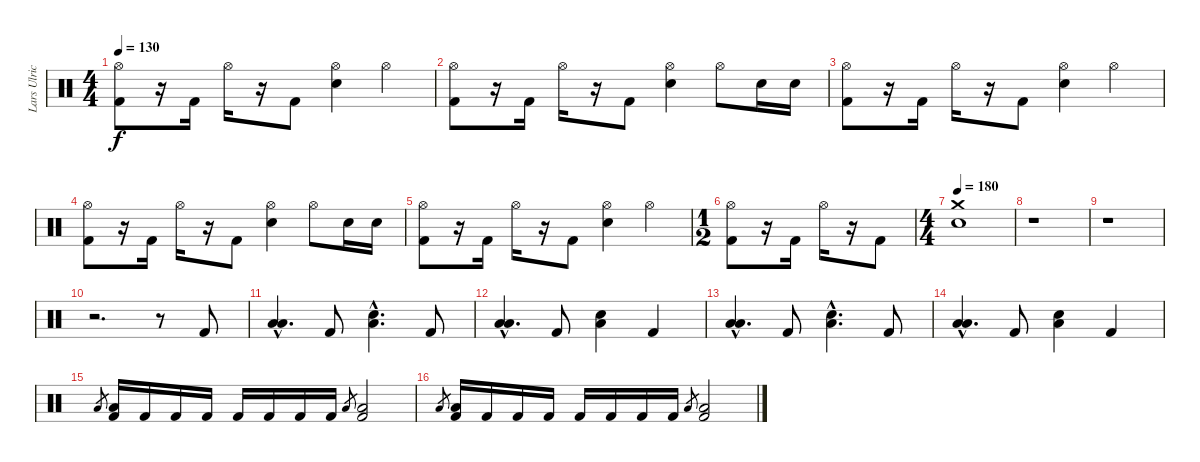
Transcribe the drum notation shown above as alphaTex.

\track ("Lars Ulrich" "Lars Ulric") {instrument percussion}
\staff {score}
\articulation defaults
\ts (4 4)
\tempo 130
\clef neutral
\ks c
("Hi-Hat (open)" "Kick (hit) 2").8{dy f} r.16 "Kick (hit) 2".16 "Hi-Hat (open)".16 r.16 "Kick (hit) 2".8 ("Hi-Hat (open)" "Electric Snare (hit)").4 "Hi-Hat (open)".4 |
("Hi-Hat (open)" "Kick (hit) 2").8 r.16 "Kick (hit) 2".16 "Hi-Hat (open)".16 r.16 "Kick (hit) 2".8 ("Hi-Hat (open)" "Electric Snare (hit)").4 "Hi-Hat (open)".8 "Electric Snare (hit)".16 "Electric Snare (hit)".16 |
("Hi-Hat (open)" "Kick (hit) 2").8 r.16 "Kick (hit) 2".16 "Hi-Hat (open)".16 r.16 "Kick (hit) 2".8 ("Hi-Hat (open)" "Electric Snare (hit)").4 "Hi-Hat (open)".4 |
("Hi-Hat (open)" "Kick (hit) 2").8 r.16 "Kick (hit) 2".16 "Hi-Hat (open)".16 r.16 "Kick (hit) 2".8 ("Hi-Hat (open)" "Electric Snare (hit)").4 "Hi-Hat (open)".8 "Electric Snare (hit)".16 "Electric Snare (hit)".16 |
("Hi-Hat (open)" "Kick (hit) 2").8 r.16 "Kick (hit) 2".16 "Hi-Hat (open)".16 r.16 "Kick (hit) 2".8 ("Hi-Hat (open)" "Electric Snare (hit)").4 "Hi-Hat (open)".4 |
\ts (1 2)
("Hi-Hat (open)" "Kick (hit) 2").8 r.16 "Kick (hit) 2".16 "Hi-Hat (open)".16 r.16 "Kick (hit) 2".8 |
\ts (4 4)
\tempo 180
("Crash medium (hit)" "Electric Snare (hit)").1 |
r.1 |
r.1 |
r.2{d} r.8 "Kick (hit) 2".8 |
("Low Tom (hit)"{hac} "Low Floor Tom (hit)"{hac}).4{d} "Kick (hit) 2".8 ("Electric Snare (hit)"{hac} "Low Tom (hit)"{hac}).4{d} "Kick (hit) 2".8 |
("Low Tom (hit)"{hac} "Low Floor Tom (hit)"{hac}).4{d} "Kick (hit) 2".8 ("Electric Snare (hit)" "Low Tom (hit)").4 "Kick (hit) 2".4 |
("Low Tom (hit)"{hac} "Low Floor Tom (hit)"{hac}).4{d} "Kick (hit) 2".8 ("Electric Snare (hit)"{hac} "Low Tom (hit)"{hac}).4{d} "Kick (hit) 2".8 |
("Low Tom (hit)"{hac} "Low Floor Tom (hit)"{hac}).4{d} "Kick (hit) 2".8 ("Electric Snare (hit)" "Low Tom (hit)").4 "Kick (hit) 2".4 |
"Low Floor Tom (hit)".8{gr} ("Low Floor Tom (hit)" "Kick (hit) 2").16 "Kick (hit) 2".16 "Kick (hit) 2".16 "Kick (hit) 2".16 "Kick (hit) 2".16 "Kick (hit) 2".16 "Kick (hit) 2".16 "Kick (hit) 2".16 "Low Floor Tom (hit)".8{gr} ("Low Floor Tom (hit)" "Kick (hit) 2").2 |
"Low Floor Tom (hit)".8{gr} ("Low Floor Tom (hit)" "Kick (hit) 2").16 "Kick (hit) 2".16 "Kick (hit) 2".16 "Kick (hit) 2".16 "Kick (hit) 2".16 "Kick (hit) 2".16 "Kick (hit) 2".16 "Kick (hit) 2".16 "Low Floor Tom (hit)".8{gr} ("Low Floor Tom (hit)" "Kick (hit) 2").2
